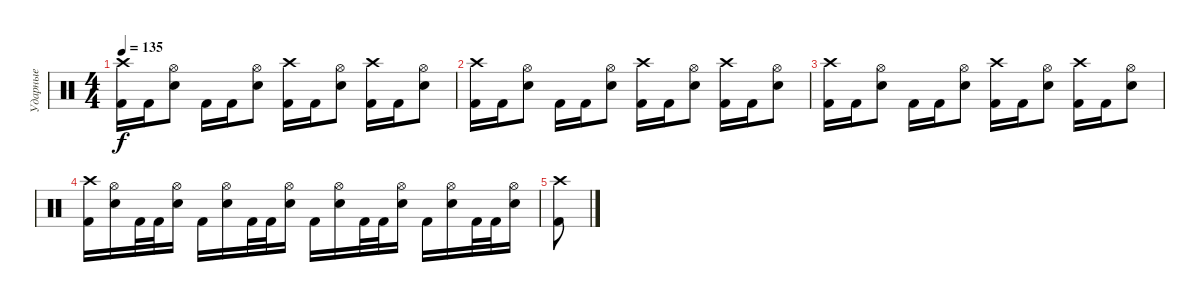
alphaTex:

\track ("Ударные" "Ударные") {instrument percussion}
\staff {score}
\articulation defaults
\ts (4 4)
\tempo 135
\clef neutral
\ks c
("Kick (hit) 2" "Crash high (hit)").16{dy f} "Kick (hit) 2".16 ("Electric Snare (hit)" "Hi-Hat (open)").8 "Kick (hit) 2".16 "Kick (hit) 2".16 ("Electric Snare (hit)" "Hi-Hat (open)").8 ("Kick (hit) 2" "Crash high (hit)").16 "Kick (hit) 2".16 ("Electric Snare (hit)" "Hi-Hat (open)").8 ("Kick (hit) 2" "Crash high (hit)").16 "Kick (hit) 2".16 ("Electric Snare (hit)" "Hi-Hat (open)").8 |
("Kick (hit) 2" "Crash high (hit)").16 "Kick (hit) 2".16 ("Electric Snare (hit)" "Hi-Hat (open)").8 "Kick (hit) 2".16 "Kick (hit) 2".16 ("Electric Snare (hit)" "Hi-Hat (open)").8 ("Kick (hit) 2" "Crash high (hit)").16 "Kick (hit) 2".16 ("Electric Snare (hit)" "Hi-Hat (open)").8 ("Kick (hit) 2" "Crash high (hit)").16 "Kick (hit) 2".16 ("Electric Snare (hit)" "Hi-Hat (open)").8 |
("Kick (hit) 2" "Crash high (hit)").16 "Kick (hit) 2".16 ("Electric Snare (hit)" "Hi-Hat (open)").8 "Kick (hit) 2".16 "Kick (hit) 2".16 ("Electric Snare (hit)" "Hi-Hat (open)").8 ("Kick (hit) 2" "Crash high (hit)").16 "Kick (hit) 2".16 ("Electric Snare (hit)" "Hi-Hat (open)").8 ("Kick (hit) 2" "Crash high (hit)").16 "Kick (hit) 2".16 ("Electric Snare (hit)" "Hi-Hat (open)").8 |
("Kick (hit) 2" "Crash high (hit)").16 ("Electric Snare (hit)" "Hi-Hat (open)").16 "Kick (hit) 2".32 "Kick (hit) 2".32 ("Electric Snare (hit)" "Hi-Hat (open)").16 "Kick (hit) 2".16 ("Electric Snare (hit)" "Hi-Hat (open)").16 "Kick (hit) 2".32 "Kick (hit) 2".32 ("Electric Snare (hit)" "Hi-Hat (open)").16 "Kick (hit) 2".16 ("Electric Snare (hit)" "Hi-Hat (open)").16 "Kick (hit) 2".32 "Kick (hit) 2".32 ("Electric Snare (hit)" "Hi-Hat (open)").16 "Kick (hit) 2".16 ("Electric Snare (hit)" "Hi-Hat (open)").16 "Kick (hit) 2".32 "Kick (hit) 2".32 ("Electric Snare (hit)" "Hi-Hat (open)").16 |
("Crash high (hit)" "Kick (hit) 2").8
